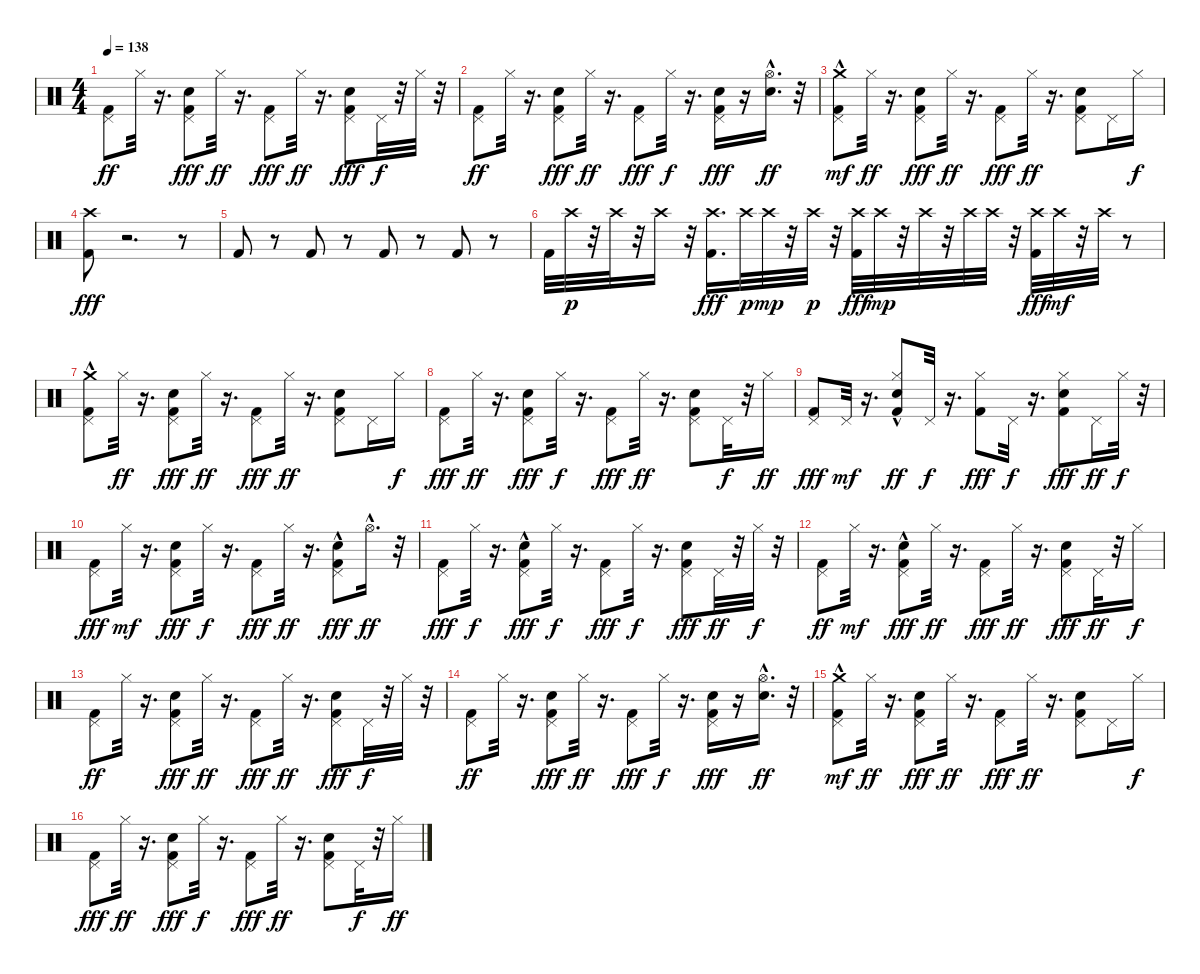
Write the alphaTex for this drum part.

\track "" {instrument percussion}
\staff {score}
\articulation defaults
\ts (4 4)
\tempo 138
\clef neutral
\ks c
("Kick (hit) 2" "Pedal Hi-Hat (hit)").8{dy ff} "Hi-Hat (closed)".32 r.16{d} ("Pedal Hi-Hat (hit)" "Snare (hit) 2" "Kick (hit) 2").8{dy fff} "Hi-Hat (closed)".32{dy ff} r.16{d} ("Kick (hit) 2" "Pedal Hi-Hat (hit)").8{dy fff} "Hi-Hat (closed)".32{dy ff} r.16{d} ("Pedal Hi-Hat (hit)" "Snare (hit) 2" "Kick (hit) 2").8{dy fff} "Pedal Hi-Hat (hit)".32{dy f} r.32 "Hi-Hat (closed)".32 r.32 |
("Kick (hit) 2" "Pedal Hi-Hat (hit)").8{dy ff} "Hi-Hat (closed)".32 r.16{d} ("Snare (hit) 2" "Pedal Hi-Hat (hit)" "Kick (hit) 2").8{dy fff} "Hi-Hat (closed)".32{dy ff} r.16{d} ("Kick (hit) 2" "Pedal Hi-Hat (hit)").8{dy fff} "Hi-Hat (closed)".32{dy f} r.16{d} ("Pedal Hi-Hat (hit)" "Snare (hit) 2" "Kick (hit) 2").16{dy fff} r.16 ("Snare (hit) 2" "Hi-Hat (open)"{hac}).16{d dy ff} r.32 |
("Kick (hit) 2" "Pedal Hi-Hat (hit)" "Crash medium (hit)"{hac}).8{dy mf} "Hi-Hat (closed)".32{dy ff} r.16{d} ("Pedal Hi-Hat (hit)" "Kick (hit) 2" "Snare (hit) 2").8{dy fff} "Hi-Hat (closed)".32{dy ff} r.16{d} ("Pedal Hi-Hat (hit)" "Kick (hit) 2").8{dy fff} "Hi-Hat (closed)".32{dy ff} r.16{d} ("Snare (hit) 2" "Kick (hit) 2" "Pedal Hi-Hat (hit)").8 "Pedal Hi-Hat (hit)".16 "Hi-Hat (closed)".16{dy f} |
("Crash high (hit)" "Kick (hit) 2").8{dy fff} r.2{d} r.8 |
"Kick (hit) 2".8 r.8 "Kick (hit) 2".8 r.8 "Kick (hit) 2".8 r.8 "Kick (hit) 2".8 r.8 |
"Kick (hit) 2".32 "Crash high (hit)".32{dy p} r.32 "Crash high (hit)".32 r.32 "Crash high (hit)".16 r.32 ("Crash high (hit)" "Kick (hit) 2").16{d dy fff} "Crash high (hit)".32{dy p} "Crash high (hit)".32{dy mp} r.32 "Crash high (hit)".32{dy p} r.32 ("Crash high (hit)" "Kick (hit) 2").32{dy fff} "Crash high (hit)".32{dy mp} r.32 "Crash high (hit)".32 r.32 "Crash high (hit)".32 "Crash high (hit)".32 r.32 ("Crash high (hit)" "Kick (hit) 2").32{dy fff} "Crash high (hit)".32{dy mf} r.32 "Crash high (hit)".32 r.8 |
("Kick (hit) 2" "Pedal Hi-Hat (hit)" "Crash medium (hit)"{hac}).8 "Hi-Hat (closed)".32{dy ff} r.16{d} ("Pedal Hi-Hat (hit)" "Kick (hit) 2" "Snare (hit) 2").8{dy fff} "Hi-Hat (closed)".32{dy ff} r.16{d} ("Pedal Hi-Hat (hit)" "Kick (hit) 2").8{dy fff} "Hi-Hat (closed)".32{dy ff} r.16{d} ("Snare (hit) 2" "Kick (hit) 2" "Pedal Hi-Hat (hit)").8 "Pedal Hi-Hat (hit)".16 "Hi-Hat (closed)".16{dy f} |
("Kick (hit) 2" "Pedal Hi-Hat (hit)").8{dy fff} "Hi-Hat (closed)".32{dy ff} r.16{d} ("Kick (hit) 2" "Snare (hit) 2" "Pedal Hi-Hat (hit)").8{dy fff} "Hi-Hat (closed)".32{dy f} r.16{d} ("Pedal Hi-Hat (hit)" "Kick (hit) 2").8{dy fff} "Hi-Hat (closed)".32{dy ff} r.16{d} ("Kick (hit) 2" "Snare (hit) 2" "Pedal Hi-Hat (hit)").8 "Pedal Hi-Hat (hit)".32{dy f} r.32 "Hi-Hat (closed)".16{dy ff} |
("Kick (hit) 2" "Pedal Hi-Hat (hit)").8{dy fff} "Pedal Hi-Hat (hit)".32{dy mf} r.16{d} ("Snare (hit) 2"{hac} "Kick (hit) 2" "Hi-Hat (closed)").8{dy ff} "Pedal Hi-Hat (hit)".32{dy f} r.16{d} ("Hi-Hat (closed)" "Kick (hit) 2").8{dy fff} "Pedal Hi-Hat (hit)".32{dy f} r.16{d} ("Snare (hit) 2" "Hi-Hat (closed)" "Kick (hit) 2").8{dy fff} "Pedal Hi-Hat (hit)".16{dy ff} "Hi-Hat (closed)".32{dy f} r.32 |
("Kick (hit) 2" "Pedal Hi-Hat (hit)").8{dy fff} "Hi-Hat (closed)".32{dy mf} r.16{d} ("Snare (hit) 2" "Kick (hit) 2" "Pedal Hi-Hat (hit)").8{dy fff} "Hi-Hat (closed)".32{dy f} r.16{d} ("Pedal Hi-Hat (hit)" "Kick (hit) 2").8{dy fff} "Hi-Hat (closed)".32{dy ff} r.16{d} ("Pedal Hi-Hat (hit)" "Snare (hit) 2"{hac} "Kick (hit) 2").8{dy fff} "Hi-Hat (open)"{hac}.16{d dy ff} r.32 |
("Kick (hit) 2" "Pedal Hi-Hat (hit)").8{dy fff} "Hi-Hat (closed)".32{dy f} r.16{d} ("Pedal Hi-Hat (hit)" "Snare (hit) 2"{hac} "Kick (hit) 2").8{dy fff} "Hi-Hat (closed)".32{dy f} r.16{d} ("Kick (hit) 2" "Pedal Hi-Hat (hit)").8{dy fff} "Hi-Hat (closed)".32{dy f} r.16{d} ("Kick (hit) 2" "Snare (hit) 2" "Pedal Hi-Hat (hit)").8{dy fff} "Pedal Hi-Hat (hit)".32{dy ff} r.32 "Hi-Hat (closed)".32{dy f} r.32 |
("Kick (hit) 2" "Pedal Hi-Hat (hit)").8{dy ff} "Hi-Hat (closed)".32{dy mf} r.16{d} ("Snare (hit) 2"{hac} "Kick (hit) 2" "Pedal Hi-Hat (hit)").8{dy fff} "Hi-Hat (closed)".32{dy ff} r.16{d} ("Pedal Hi-Hat (hit)" "Kick (hit) 2").8{dy fff} "Hi-Hat (closed)".32{dy ff} r.16{d} ("Snare (hit) 2" "Kick (hit) 2" "Pedal Hi-Hat (hit)").8{dy fff} "Pedal Hi-Hat (hit)".32{dy ff} r.32 "Hi-Hat (closed)".16{dy f} |
("Kick (hit) 2" "Pedal Hi-Hat (hit)").8{dy ff} "Hi-Hat (closed)".32 r.16{d} ("Pedal Hi-Hat (hit)" "Snare (hit) 2" "Kick (hit) 2").8{dy fff} "Hi-Hat (closed)".32{dy ff} r.16{d} ("Kick (hit) 2" "Pedal Hi-Hat (hit)").8{dy fff} "Hi-Hat (closed)".32{dy ff} r.16{d} ("Pedal Hi-Hat (hit)" "Snare (hit) 2" "Kick (hit) 2").8{dy fff} "Pedal Hi-Hat (hit)".32{dy f} r.32 "Hi-Hat (closed)".32 r.32 |
("Kick (hit) 2" "Pedal Hi-Hat (hit)").8{dy ff} "Hi-Hat (closed)".32 r.16{d} ("Snare (hit) 2" "Pedal Hi-Hat (hit)" "Kick (hit) 2").8{dy fff} "Hi-Hat (closed)".32{dy ff} r.16{d} ("Kick (hit) 2" "Pedal Hi-Hat (hit)").8{dy fff} "Hi-Hat (closed)".32{dy f} r.16{d} ("Pedal Hi-Hat (hit)" "Snare (hit) 2" "Kick (hit) 2").16{dy fff} r.16 ("Snare (hit) 2" "Hi-Hat (open)"{hac}).16{d dy ff} r.32 |
("Kick (hit) 2" "Pedal Hi-Hat (hit)" "Crash medium (hit)"{hac}).8{dy mf} "Hi-Hat (closed)".32{dy ff} r.16{d} ("Pedal Hi-Hat (hit)" "Kick (hit) 2" "Snare (hit) 2").8{dy fff} "Hi-Hat (closed)".32{dy ff} r.16{d} ("Pedal Hi-Hat (hit)" "Kick (hit) 2").8{dy fff} "Hi-Hat (closed)".32{dy ff} r.16{d} ("Snare (hit) 2" "Kick (hit) 2" "Pedal Hi-Hat (hit)").8 "Pedal Hi-Hat (hit)".16 "Hi-Hat (closed)".16{dy f} |
("Kick (hit) 2" "Pedal Hi-Hat (hit)").8{dy fff} "Hi-Hat (closed)".32{dy ff} r.16{d} ("Kick (hit) 2" "Snare (hit) 2" "Pedal Hi-Hat (hit)").8{dy fff} "Hi-Hat (closed)".32{dy f} r.16{d} ("Pedal Hi-Hat (hit)" "Kick (hit) 2").8{dy fff} "Hi-Hat (closed)".32{dy ff} r.16{d} ("Kick (hit) 2" "Snare (hit) 2" "Pedal Hi-Hat (hit)").8 "Pedal Hi-Hat (hit)".32{dy f} r.32 "Hi-Hat (closed)".16{dy ff}
